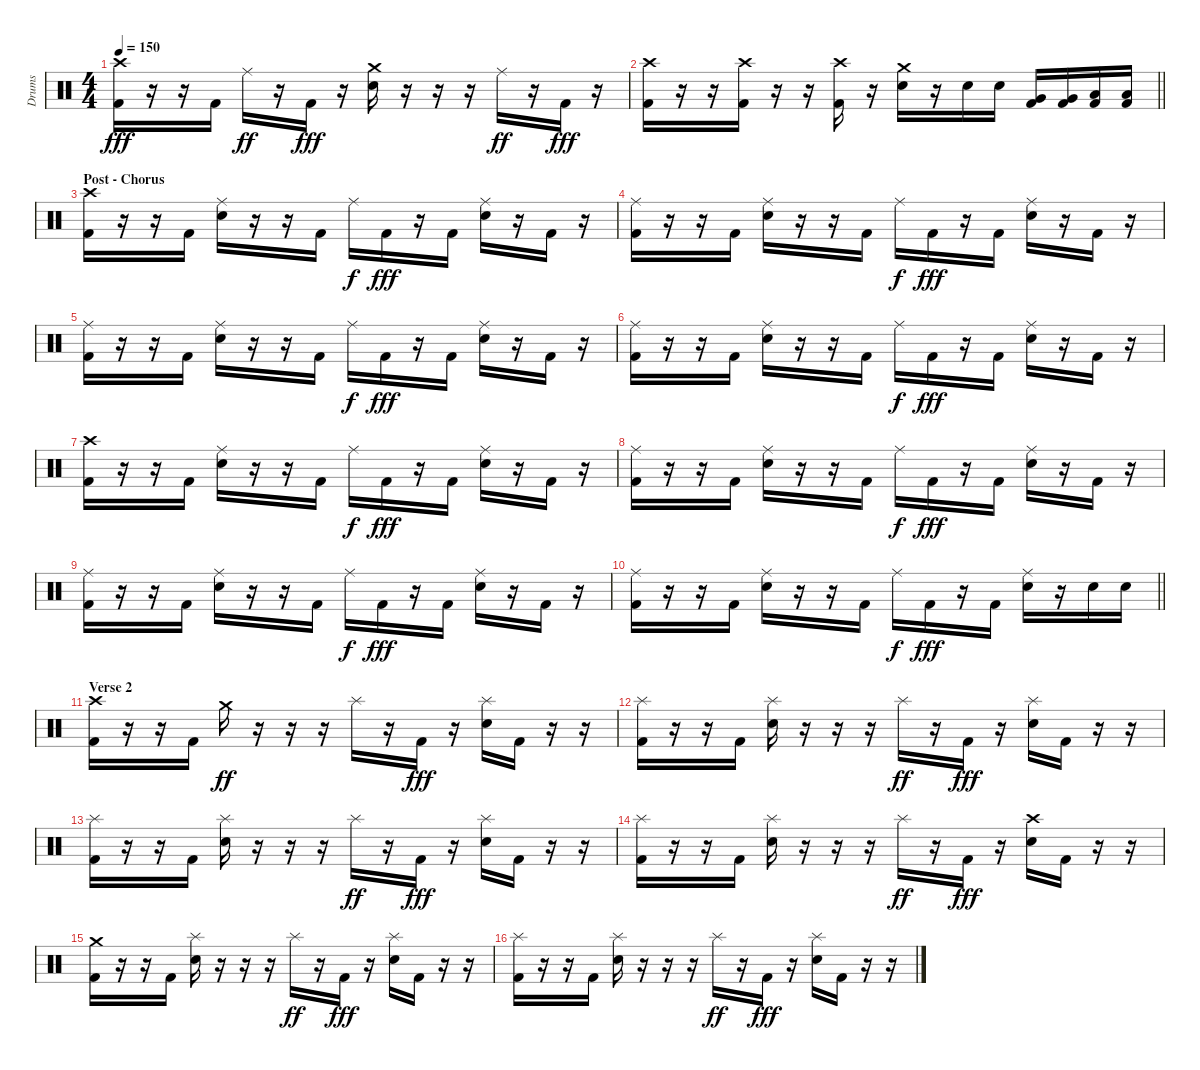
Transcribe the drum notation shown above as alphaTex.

\track ("Drums" "Drums") {instrument percussion}
\staff {score}
\articulation defaults
\ts (4 4)
\tempo 150
\clef neutral
\ks c
("Crash high (hit)" "Kick (hit) 2").16{dy fff} r.16 r.16 "Kick (hit) 2".16 "Ride (middle)".16{dy ff} r.16 "Kick (hit) 2".16{dy fff} r.16 ("Crash medium (hit)" "Electric Snare (hit)").16 r.16 r.16 r.16 "Ride (middle)".16{dy ff} r.16 "Kick (hit) 2".16{dy fff} r.16 |
\barLineRight lightlight
("Crash high (hit)" "Kick (hit) 2").16 r.16 r.16 ("Crash high (hit)" "Kick (hit) 2").16 r.16 r.16 ("Crash high (hit)" "Kick (hit) 2").16 r.16 ("Crash medium (hit)" "Electric Snare (hit)").16 r.16 "Electric Snare (hit)".16 "Electric Snare (hit)".16 ("Very Low Tom (hit)" "Kick (hit) 2").16 ("Very Low Tom (hit)" "Kick (hit) 2").16 ("Low Floor Tom (hit)" "Kick (hit) 2").16 ("Low Floor Tom (hit)" "Kick (hit) 2").16 |
\section ("" "Post - Chorus")
("Crash high (hit)" "Kick (hit) 2").16 r.16 r.16 "Kick (hit) 2".16 ("Ride (middle)" "Electric Snare (hit)").16 r.16 r.16 "Kick (hit) 2".16 "Ride (middle)".16{dy f} "Kick (hit) 2".16{dy fff} r.16 "Kick (hit) 2".16 ("Ride (middle)" "Electric Snare (hit)").16 r.16 "Kick (hit) 2".16 r.16 |
("Ride (middle)" "Kick (hit) 2").16 r.16 r.16 "Kick (hit) 2".16 ("Ride (middle)" "Electric Snare (hit)").16 r.16 r.16 "Kick (hit) 2".16 "Ride (middle)".16{dy f} "Kick (hit) 2".16{dy fff} r.16 "Kick (hit) 2".16 ("Ride (middle)" "Electric Snare (hit)").16 r.16 "Kick (hit) 2".16 r.16 |
("Ride (middle)" "Kick (hit) 2").16 r.16 r.16 "Kick (hit) 2".16 ("Ride (middle)" "Electric Snare (hit)").16 r.16 r.16 "Kick (hit) 2".16 "Ride (middle)".16{dy f} "Kick (hit) 2".16{dy fff} r.16 "Kick (hit) 2".16 ("Ride (middle)" "Electric Snare (hit)").16 r.16 "Kick (hit) 2".16 r.16 |
("Ride (middle)" "Kick (hit) 2").16 r.16 r.16 "Kick (hit) 2".16 ("Ride (middle)" "Electric Snare (hit)").16 r.16 r.16 "Kick (hit) 2".16 "Ride (middle)".16{dy f} "Kick (hit) 2".16{dy fff} r.16 "Kick (hit) 2".16 ("Ride (middle)" "Electric Snare (hit)").16 r.16 "Kick (hit) 2".16 r.16 |
("Crash high (hit)" "Kick (hit) 2").16 r.16 r.16 "Kick (hit) 2".16 ("Ride (middle)" "Electric Snare (hit)").16 r.16 r.16 "Kick (hit) 2".16 "Ride (middle)".16{dy f} "Kick (hit) 2".16{dy fff} r.16 "Kick (hit) 2".16 ("Ride (middle)" "Electric Snare (hit)").16 r.16 "Kick (hit) 2".16 r.16 |
("Ride (middle)" "Kick (hit) 2").16 r.16 r.16 "Kick (hit) 2".16 ("Ride (middle)" "Electric Snare (hit)").16 r.16 r.16 "Kick (hit) 2".16 "Ride (middle)".16{dy f} "Kick (hit) 2".16{dy fff} r.16 "Kick (hit) 2".16 ("Ride (middle)" "Electric Snare (hit)").16 r.16 "Kick (hit) 2".16 r.16 |
("Ride (middle)" "Kick (hit) 2").16 r.16 r.16 "Kick (hit) 2".16 ("Ride (middle)" "Electric Snare (hit)").16 r.16 r.16 "Kick (hit) 2".16 "Ride (middle)".16{dy f} "Kick (hit) 2".16{dy fff} r.16 "Kick (hit) 2".16 ("Ride (middle)" "Electric Snare (hit)").16 r.16 "Kick (hit) 2".16 r.16 |
\barLineRight lightlight
("Ride (middle)" "Kick (hit) 2").16 r.16 r.16 "Kick (hit) 2".16 ("Ride (middle)" "Electric Snare (hit)").16 r.16 r.16 "Kick (hit) 2".16 "Ride (middle)".16{dy f} "Kick (hit) 2".16{dy fff} r.16 "Kick (hit) 2".16 ("Ride (middle)" "Electric Snare (hit)").16 r.16 "Electric Snare (hit)".16 "Electric Snare (hit)".16 |
\section ("" "Verse 2")
("Crash high (hit)" "Kick (hit) 2").16 r.16 r.16 "Kick (hit) 2".16 "Crash medium (hit)".16{dy ff} r.16 r.16 r.16 "Splash (hit)".16 r.16 "Kick (hit) 2".16{dy fff} r.16 ("Splash (hit)" "Electric Snare (hit)").16 "Kick (hit) 2".16 r.16 r.16 |
("Splash (hit)" "Kick (hit) 2").16 r.16 r.16 "Kick (hit) 2".16 ("Splash (hit)" "Electric Snare (hit)").16 r.16 r.16 r.16 "Splash (hit)".16{dy ff} r.16 "Kick (hit) 2".16{dy fff} r.16 ("Splash (hit)" "Electric Snare (hit)").16 "Kick (hit) 2".16 r.16 r.16 |
("Splash (hit)" "Kick (hit) 2").16 r.16 r.16 "Kick (hit) 2".16 ("Splash (hit)" "Electric Snare (hit)").16 r.16 r.16 r.16 "Splash (hit)".16{dy ff} r.16 "Kick (hit) 2".16{dy fff} r.16 ("Splash (hit)" "Electric Snare (hit)").16 "Kick (hit) 2".16 r.16 r.16 |
("Splash (hit)" "Kick (hit) 2").16 r.16 r.16 "Kick (hit) 2".16 ("Splash (hit)" "Electric Snare (hit)").16 r.16 r.16 r.16 "Splash (hit)".16{dy ff} r.16 "Kick (hit) 2".16{dy fff} r.16 ("Crash high (hit)" "Electric Snare (hit)").16 "Kick (hit) 2".16 r.16 r.16 |
("Crash medium (hit)" "Kick (hit) 2").16 r.16 r.16 "Kick (hit) 2".16 ("Splash (hit)" "Electric Snare (hit)").16 r.16 r.16 r.16 "Splash (hit)".16{dy ff} r.16 "Kick (hit) 2".16{dy fff} r.16 ("Splash (hit)" "Electric Snare (hit)").16 "Kick (hit) 2".16 r.16 r.16 |
("Splash (hit)" "Kick (hit) 2").16 r.16 r.16 "Kick (hit) 2".16 ("Splash (hit)" "Electric Snare (hit)").16 r.16 r.16 r.16 "Splash (hit)".16{dy ff} r.16 "Kick (hit) 2".16{dy fff} r.16 ("Splash (hit)" "Electric Snare (hit)").16 "Kick (hit) 2".16 r.16 r.16
